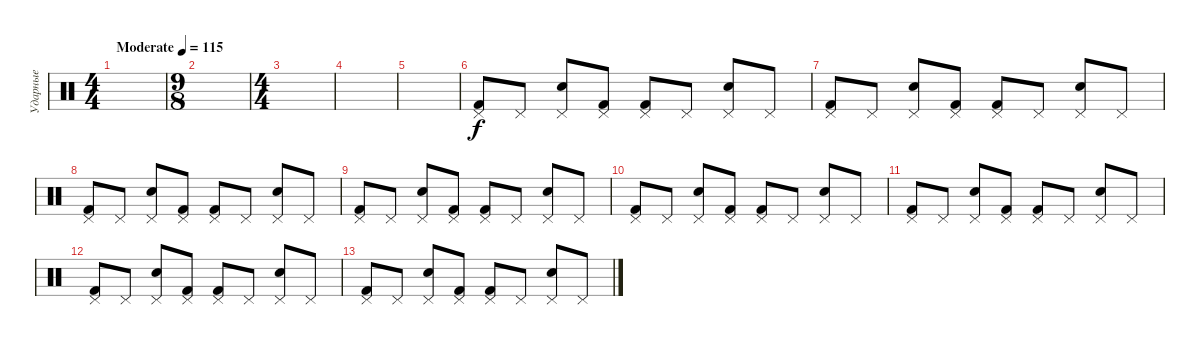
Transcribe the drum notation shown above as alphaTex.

\track ("Ударные" "Ударные") {instrument percussion}
\staff {score}
\articulation defaults
\ts (4 4)
\tempo (115 "Moderate")
\clef neutral
\ks c
|
\ts (9 8)
|
\ts (4 4)
|
|
|
("Pedal Hi-Hat (hit)" "Kick (hit) 2").8 "Pedal Hi-Hat (hit)".8 ("Pedal Hi-Hat (hit)" "Snare (hit) 2").8 ("Pedal Hi-Hat (hit)" "Kick (hit) 2").8 ("Pedal Hi-Hat (hit)" "Kick (hit) 2").8 "Pedal Hi-Hat (hit)".8 ("Pedal Hi-Hat (hit)" "Snare (hit) 2").8 "Pedal Hi-Hat (hit)".8 |
("Pedal Hi-Hat (hit)" "Kick (hit) 2").8 "Pedal Hi-Hat (hit)".8 ("Pedal Hi-Hat (hit)" "Snare (hit) 2").8 ("Pedal Hi-Hat (hit)" "Kick (hit) 2").8 ("Pedal Hi-Hat (hit)" "Kick (hit) 2").8 "Pedal Hi-Hat (hit)".8 ("Pedal Hi-Hat (hit)" "Snare (hit) 2").8 "Pedal Hi-Hat (hit)".8 |
("Pedal Hi-Hat (hit)" "Kick (hit) 2").8 "Pedal Hi-Hat (hit)".8 ("Pedal Hi-Hat (hit)" "Snare (hit) 2").8 ("Pedal Hi-Hat (hit)" "Kick (hit) 2").8 ("Pedal Hi-Hat (hit)" "Kick (hit) 2").8 "Pedal Hi-Hat (hit)".8 ("Pedal Hi-Hat (hit)" "Snare (hit) 2").8 "Pedal Hi-Hat (hit)".8 |
("Pedal Hi-Hat (hit)" "Kick (hit) 2").8 "Pedal Hi-Hat (hit)".8 ("Pedal Hi-Hat (hit)" "Snare (hit) 2").8 ("Pedal Hi-Hat (hit)" "Kick (hit) 2").8 ("Pedal Hi-Hat (hit)" "Kick (hit) 2").8 "Pedal Hi-Hat (hit)".8 ("Pedal Hi-Hat (hit)" "Snare (hit) 2").8 "Pedal Hi-Hat (hit)".8 |
("Pedal Hi-Hat (hit)" "Kick (hit) 2").8 "Pedal Hi-Hat (hit)".8 ("Pedal Hi-Hat (hit)" "Snare (hit) 2").8 ("Pedal Hi-Hat (hit)" "Kick (hit) 2").8 ("Pedal Hi-Hat (hit)" "Kick (hit) 2").8 "Pedal Hi-Hat (hit)".8 ("Pedal Hi-Hat (hit)" "Snare (hit) 2").8 "Pedal Hi-Hat (hit)".8 |
("Pedal Hi-Hat (hit)" "Kick (hit) 2").8 "Pedal Hi-Hat (hit)".8 ("Pedal Hi-Hat (hit)" "Snare (hit) 2").8 ("Pedal Hi-Hat (hit)" "Kick (hit) 2").8 ("Pedal Hi-Hat (hit)" "Kick (hit) 2").8 "Pedal Hi-Hat (hit)".8 ("Pedal Hi-Hat (hit)" "Snare (hit) 2").8 "Pedal Hi-Hat (hit)".8 |
("Pedal Hi-Hat (hit)" "Kick (hit) 2").8 "Pedal Hi-Hat (hit)".8 ("Pedal Hi-Hat (hit)" "Snare (hit) 2").8 ("Pedal Hi-Hat (hit)" "Kick (hit) 2").8 ("Pedal Hi-Hat (hit)" "Kick (hit) 2").8 "Pedal Hi-Hat (hit)".8 ("Pedal Hi-Hat (hit)" "Snare (hit) 2").8 "Pedal Hi-Hat (hit)".8 |
("Pedal Hi-Hat (hit)" "Kick (hit) 2").8 "Pedal Hi-Hat (hit)".8 ("Pedal Hi-Hat (hit)" "Snare (hit) 2").8 ("Pedal Hi-Hat (hit)" "Kick (hit) 2").8 ("Pedal Hi-Hat (hit)" "Kick (hit) 2").8 "Pedal Hi-Hat (hit)".8 ("Pedal Hi-Hat (hit)" "Snare (hit) 2").8 "Pedal Hi-Hat (hit)".8
